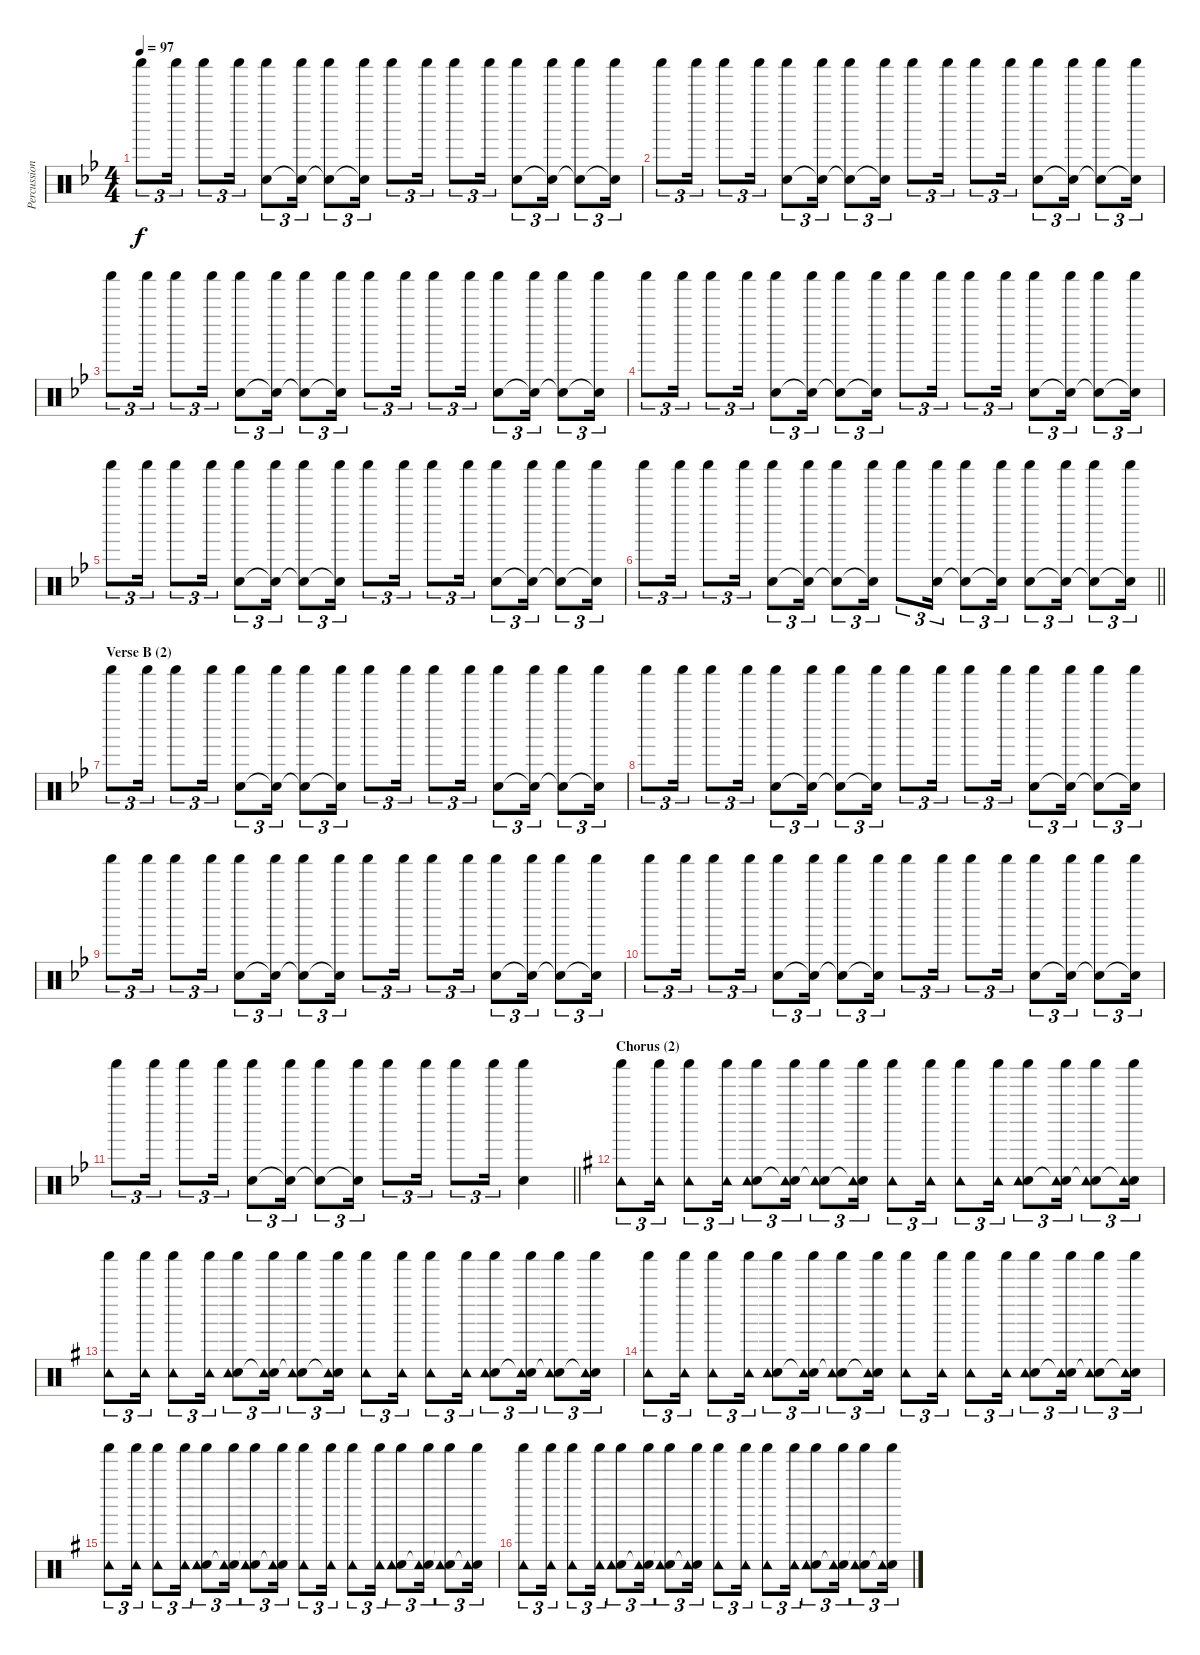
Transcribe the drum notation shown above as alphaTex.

\track ("Percussion" "Percussion") {instrument percussion}
\staff {score}
\articulation defaults
\ts (4 4)
\tempo 97
\clef neutral
\ks bb "Shaker (hit)".8{tu (3 2) dy f} "Shaker (hit)".16{tu (3 2)} "Shaker (hit)".8{tu (3 2)} "Shaker (hit)".16{tu (3 2)}
("Hand Clap (hit)" "Shaker (hit)").8{tu (3 2)} ("Snare (hit)"{t} "Shaker (hit)").16{tu (3 2)} ("Snare (hit)"{t} "Shaker (hit)").8{tu (3 2)} ("Snare (hit)"{t} "Shaker (hit)").16{tu (3 2)} "Shaker (hit)".8{tu (3 2)} "Shaker (hit)".16{tu (3 2)} "Shaker (hit)".8{tu (3 2)} "Shaker (hit)".16{tu (3 2)} ("Hand Clap (hit)" "Shaker (hit)").8{tu (3 2)} ("Snare (hit)"{t} "Shaker (hit)").16{tu (3 2)} ("Snare (hit)"{t} "Shaker (hit)").8{tu (3 2)} ("Snare (hit)"{t} "Shaker (hit)").16{tu (3 2)} |
"Shaker (hit)".8{tu (3 2)} "Shaker (hit)".16{tu (3 2)} "Shaker (hit)".8{tu (3 2)} "Shaker (hit)".16{tu (3 2)} ("Hand Clap (hit)" "Shaker (hit)").8{tu (3 2)} ("Snare (hit)"{t} "Shaker (hit)").16{tu (3 2)} ("Snare (hit)"{t} "Shaker (hit)").8{tu (3 2)} ("Snare (hit)"{t} "Shaker (hit)").16{tu (3 2)} "Shaker (hit)".8{tu (3 2)} "Shaker (hit)".16{tu (3 2)} "Shaker (hit)".8{tu (3 2)} "Shaker (hit)".16{tu (3 2)} ("Hand Clap (hit)" "Shaker (hit)").8{tu (3 2)} ("Snare (hit)"{t} "Shaker (hit)").16{tu (3 2)} ("Snare (hit)"{t} "Shaker (hit)").8{tu (3 2)} ("Snare (hit)"{t} "Shaker (hit)").16{tu (3 2)} |
"Shaker (hit)".8{tu (3 2)} "Shaker (hit)".16{tu (3 2)} "Shaker (hit)".8{tu (3 2)} "Shaker (hit)".16{tu (3 2)} ("Hand Clap (hit)" "Shaker (hit)").8{tu (3 2)} ("Snare (hit)"{t} "Shaker (hit)").16{tu (3 2)} ("Snare (hit)"{t} "Shaker (hit)").8{tu (3 2)} ("Snare (hit)"{t} "Shaker (hit)").16{tu (3 2)} "Shaker (hit)".8{tu (3 2)} "Shaker (hit)".16{tu (3 2)} "Shaker (hit)".8{tu (3 2)} "Shaker (hit)".16{tu (3 2)} ("Hand Clap (hit)" "Shaker (hit)").8{tu (3 2)} ("Snare (hit)"{t} "Shaker (hit)").16{tu (3 2)} ("Snare (hit)"{t} "Shaker (hit)").8{tu (3 2)} ("Snare (hit)"{t} "Shaker (hit)").16{tu (3 2)} |
"Shaker (hit)".8{tu (3 2)} "Shaker (hit)".16{tu (3 2)} "Shaker (hit)".8{tu (3 2)} "Shaker (hit)".16{tu (3 2)} ("Hand Clap (hit)" "Shaker (hit)").8{tu (3 2)} ("Snare (hit)"{t} "Shaker (hit)").16{tu (3 2)} ("Snare (hit)"{t} "Shaker (hit)").8{tu (3 2)} ("Snare (hit)"{t} "Shaker (hit)").16{tu (3 2)} "Shaker (hit)".8{tu (3 2)} "Shaker (hit)".16{tu (3 2)} "Shaker (hit)".8{tu (3 2)} "Shaker (hit)".16{tu (3 2)} ("Hand Clap (hit)" "Shaker (hit)").8{tu (3 2)} ("Snare (hit)"{t} "Shaker (hit)").16{tu (3 2)} ("Snare (hit)"{t} "Shaker (hit)").8{tu (3 2)} ("Snare (hit)"{t} "Shaker (hit)").16{tu (3 2)} |
"Shaker (hit)".8{tu (3 2)} "Shaker (hit)".16{tu (3 2)} "Shaker (hit)".8{tu (3 2)} "Shaker (hit)".16{tu (3 2)} ("Hand Clap (hit)" "Shaker (hit)").8{tu (3 2)} ("Snare (hit)"{t} "Shaker (hit)").16{tu (3 2)} ("Snare (hit)"{t} "Shaker (hit)").8{tu (3 2)} ("Snare (hit)"{t} "Shaker (hit)").16{tu (3 2)} "Shaker (hit)".8{tu (3 2)} "Shaker (hit)".16{tu (3 2)} "Shaker (hit)".8{tu (3 2)} "Shaker (hit)".16{tu (3 2)} ("Hand Clap (hit)" "Shaker (hit)").8{tu (3 2)} ("Snare (hit)"{t} "Shaker (hit)").16{tu (3 2)} ("Snare (hit)"{t} "Shaker (hit)").8{tu (3 2)} ("Snare (hit)"{t} "Shaker (hit)").16{tu (3 2)} |
\barLineRight lightlight "Shaker (hit)".8{tu (3 2)} "Shaker (hit)".16{tu (3 2)} "Shaker (hit)".8{tu (3 2)} "Shaker (hit)".16{tu (3 2)}
("Hand Clap (hit)" "Shaker (hit)").8{tu (3 2)} ("Snare (hit)"{t} "Shaker (hit)").16{tu (3 2)} ("Snare (hit)"{t} "Shaker (hit)").8{tu (3 2)} ("Snare (hit)"{t} "Shaker (hit)").16{tu (3 2)} "Shaker (hit)".8{tu (3 2)} ("Hand Clap (hit)" "Shaker (hit)").16{tu (3 2)} ("Snare (hit)"{t} "Shaker (hit)").8{tu (3 2)} ("Snare (hit)"{t} "Shaker (hit)").16{tu (3 2)} ("Hand Clap (hit)" "Shaker (hit)").8{tu (3 2)} ("Snare (hit)"{t} "Shaker (hit)").16{tu (3 2)} ("Snare (hit)"{t} "Shaker (hit)").8{tu (3 2)} ("Snare (hit)"{t} "Shaker (hit)").16{tu (3 2)} |
\section ("" "Verse B (2)")
"Shaker (hit)".8{tu (3 2)} "Shaker (hit)".16{tu (3 2)} "Shaker (hit)".8{tu (3 2)} "Shaker (hit)".16{tu (3 2)} ("Hand Clap (hit)" "Shaker (hit)").8{tu (3 2)} ("Snare (hit)"{t} "Shaker (hit)").16{tu (3 2)} ("Snare (hit)"{t} "Shaker (hit)").8{tu (3 2)} ("Snare (hit)"{t} "Shaker (hit)").16{tu (3 2)} "Shaker (hit)".8{tu (3 2)} "Shaker (hit)".16{tu (3 2)} "Shaker (hit)".8{tu (3 2)} "Shaker (hit)".16{tu (3 2)} ("Hand Clap (hit)" "Shaker (hit)").8{tu (3 2)} ("Snare (hit)"{t} "Shaker (hit)").16{tu (3 2)} ("Snare (hit)"{t} "Shaker (hit)").8{tu (3 2)} ("Snare (hit)"{t} "Shaker (hit)").16{tu (3 2)} |
"Shaker (hit)".8{tu (3 2)} "Shaker (hit)".16{tu (3 2)} "Shaker (hit)".8{tu (3 2)} "Shaker (hit)".16{tu (3 2)} ("Hand Clap (hit)" "Shaker (hit)").8{tu (3 2)} ("Snare (hit)"{t} "Shaker (hit)").16{tu (3 2)} ("Snare (hit)"{t} "Shaker (hit)").8{tu (3 2)} ("Snare (hit)"{t} "Shaker (hit)").16{tu (3 2)} "Shaker (hit)".8{tu (3 2)} "Shaker (hit)".16{tu (3 2)} "Shaker (hit)".8{tu (3 2)} "Shaker (hit)".16{tu (3 2)} ("Hand Clap (hit)" "Shaker (hit)").8{tu (3 2)} ("Snare (hit)"{t} "Shaker (hit)").16{tu (3 2)} ("Snare (hit)"{t} "Shaker (hit)").8{tu (3 2)} ("Snare (hit)"{t} "Shaker (hit)").16{tu (3 2)} |
"Shaker (hit)".8{tu (3 2)} "Shaker (hit)".16{tu (3 2)} "Shaker (hit)".8{tu (3 2)} "Shaker (hit)".16{tu (3 2)} ("Hand Clap (hit)" "Shaker (hit)").8{tu (3 2)} ("Snare (hit)"{t} "Shaker (hit)").16{tu (3 2)} ("Snare (hit)"{t} "Shaker (hit)").8{tu (3 2)} ("Snare (hit)"{t} "Shaker (hit)").16{tu (3 2)} "Shaker (hit)".8{tu (3 2)} "Shaker (hit)".16{tu (3 2)} "Shaker (hit)".8{tu (3 2)} "Shaker (hit)".16{tu (3 2)} ("Hand Clap (hit)" "Shaker (hit)").8{tu (3 2)} ("Snare (hit)"{t} "Shaker (hit)").16{tu (3 2)} ("Snare (hit)"{t} "Shaker (hit)").8{tu (3 2)} ("Snare (hit)"{t} "Shaker (hit)").16{tu (3 2)} |
"Shaker (hit)".8{tu (3 2)} "Shaker (hit)".16{tu (3 2)} "Shaker (hit)".8{tu (3 2)} "Shaker (hit)".16{tu (3 2)} ("Hand Clap (hit)" "Shaker (hit)").8{tu (3 2)} ("Snare (hit)"{t} "Shaker (hit)").16{tu (3 2)} ("Snare (hit)"{t} "Shaker (hit)").8{tu (3 2)} ("Snare (hit)"{t} "Shaker (hit)").16{tu (3 2)} "Shaker (hit)".8{tu (3 2)} "Shaker (hit)".16{tu (3 2)} "Shaker (hit)".8{tu (3 2)} "Shaker (hit)".16{tu (3 2)} ("Hand Clap (hit)" "Shaker (hit)").8{tu (3 2)} ("Snare (hit)"{t} "Shaker (hit)").16{tu (3 2)} ("Snare (hit)"{t} "Shaker (hit)").8{tu (3 2)} ("Snare (hit)"{t} "Shaker (hit)").16{tu (3 2)} |
\barLineRight lightlight "Shaker (hit)".8{tu (3 2)} "Shaker (hit)".16{tu (3 2)} "Shaker (hit)".8{tu (3 2)} "Shaker (hit)".16{tu (3 2)}
("Hand Clap (hit)" "Shaker (hit)").8{tu (3 2)} ("Snare (hit)"{t} "Shaker (hit)").16{tu (3 2)} ("Snare (hit)"{t} "Shaker (hit)").8{tu (3 2)} ("Snare (hit)"{t} "Shaker (hit)").16{tu (3 2)} "Shaker (hit)".8{tu (3 2)} "Shaker (hit)".16{tu (3 2)} "Shaker (hit)".8{tu (3 2)} "Shaker (hit)".16{tu (3 2)} ("Hand Clap (hit)" "Shaker (hit)").4 |
\section ("" "Chorus (2)")
\ks g
("Shaker (hit)" "Tambourine (hit)").8{tu (3 2)} ("Shaker (hit)" "Tambourine (hit)").16{tu (3 2)} ("Shaker (hit)" "Tambourine (hit)").8{tu (3 2)} ("Shaker (hit)" "Tambourine (hit)").16{tu (3 2)} ("Hand Clap (hit)" "Shaker (hit)" "Tambourine (hit)").8{tu (3 2)} ("Snare (hit)"{t} "Shaker (hit)" "Tambourine (hit)").16{tu (3 2)} ("Snare (hit)"{t} "Shaker (hit)" "Tambourine (hit)").8{tu (3 2)} ("Snare (hit)"{t} "Shaker (hit)" "Tambourine (hit)").16{tu (3 2)} ("Shaker (hit)" "Tambourine (hit)").8{tu (3 2)} ("Shaker (hit)" "Tambourine (hit)").16{tu (3 2)} ("Shaker (hit)" "Tambourine (hit)").8{tu (3 2)} ("Shaker (hit)" "Tambourine (hit)").16{tu (3 2)} ("Hand Clap (hit)" "Shaker (hit)" "Tambourine (hit)").8{tu (3 2)} ("Snare (hit)"{t} "Shaker (hit)" "Tambourine (hit)").16{tu (3 2)} ("Snare (hit)"{t} "Shaker (hit)" "Tambourine (hit)").8{tu (3 2)} ("Snare (hit)"{t} "Shaker (hit)" "Tambourine (hit)").16{tu (3 2)} |
("Shaker (hit)" "Tambourine (hit)").8{tu (3 2)} ("Shaker (hit)" "Tambourine (hit)").16{tu (3 2)} ("Shaker (hit)" "Tambourine (hit)").8{tu (3 2)} ("Shaker (hit)" "Tambourine (hit)").16{tu (3 2)} ("Hand Clap (hit)" "Shaker (hit)" "Tambourine (hit)").8{tu (3 2)} ("Snare (hit)"{t} "Shaker (hit)" "Tambourine (hit)").16{tu (3 2)} ("Snare (hit)"{t} "Shaker (hit)" "Tambourine (hit)").8{tu (3 2)} ("Snare (hit)"{t} "Shaker (hit)" "Tambourine (hit)").16{tu (3 2)} ("Shaker (hit)" "Tambourine (hit)").8{tu (3 2)} ("Shaker (hit)" "Tambourine (hit)").16{tu (3 2)} ("Shaker (hit)" "Tambourine (hit)").8{tu (3 2)} ("Shaker (hit)" "Tambourine (hit)").16{tu (3 2)} ("Hand Clap (hit)" "Shaker (hit)" "Tambourine (hit)").8{tu (3 2)} ("Snare (hit)"{t} "Shaker (hit)" "Tambourine (hit)").16{tu (3 2)} ("Snare (hit)"{t} "Shaker (hit)" "Tambourine (hit)").8{tu (3 2)} ("Snare (hit)"{t} "Shaker (hit)" "Tambourine (hit)").16{tu (3 2)} |
("Shaker (hit)" "Tambourine (hit)").8{tu (3 2)} ("Shaker (hit)" "Tambourine (hit)").16{tu (3 2)} ("Shaker (hit)" "Tambourine (hit)").8{tu (3 2)} ("Shaker (hit)" "Tambourine (hit)").16{tu (3 2)} ("Hand Clap (hit)" "Shaker (hit)" "Tambourine (hit)").8{tu (3 2)} ("Snare (hit)"{t} "Shaker (hit)" "Tambourine (hit)").16{tu (3 2)} ("Snare (hit)"{t} "Shaker (hit)" "Tambourine (hit)").8{tu (3 2)} ("Snare (hit)"{t} "Shaker (hit)" "Tambourine (hit)").16{tu (3 2)} ("Shaker (hit)" "Tambourine (hit)").8{tu (3 2)} ("Shaker (hit)" "Tambourine (hit)").16{tu (3 2)} ("Shaker (hit)" "Tambourine (hit)").8{tu (3 2)} ("Shaker (hit)" "Tambourine (hit)").16{tu (3 2)} ("Hand Clap (hit)" "Shaker (hit)" "Tambourine (hit)").8{tu (3 2)} ("Snare (hit)"{t} "Shaker (hit)" "Tambourine (hit)").16{tu (3 2)} ("Snare (hit)"{t} "Shaker (hit)" "Tambourine (hit)").8{tu (3 2)} ("Snare (hit)"{t} "Shaker (hit)" "Tambourine (hit)").16{tu (3 2)} |
("Shaker (hit)" "Tambourine (hit)").8{tu (3 2)} ("Shaker (hit)" "Tambourine (hit)").16{tu (3 2)} ("Shaker (hit)" "Tambourine (hit)").8{tu (3 2)} ("Shaker (hit)" "Tambourine (hit)").16{tu (3 2)} ("Hand Clap (hit)" "Shaker (hit)" "Tambourine (hit)").8{tu (3 2)} ("Snare (hit)"{t} "Shaker (hit)" "Tambourine (hit)").16{tu (3 2)} ("Snare (hit)"{t} "Shaker (hit)" "Tambourine (hit)").8{tu (3 2)} ("Snare (hit)"{t} "Shaker (hit)" "Tambourine (hit)").16{tu (3 2)} ("Shaker (hit)" "Tambourine (hit)").8{tu (3 2)} ("Shaker (hit)" "Tambourine (hit)").16{tu (3 2)} ("Shaker (hit)" "Tambourine (hit)").8{tu (3 2)} ("Shaker (hit)" "Tambourine (hit)").16{tu (3 2)} ("Hand Clap (hit)" "Shaker (hit)" "Tambourine (hit)").8{tu (3 2)} ("Snare (hit)"{t} "Shaker (hit)" "Tambourine (hit)").16{tu (3 2)} ("Snare (hit)"{t} "Shaker (hit)" "Tambourine (hit)").8{tu (3 2)} ("Snare (hit)"{t} "Shaker (hit)" "Tambourine (hit)").16{tu (3 2)} |
("Shaker (hit)" "Tambourine (hit)").8{tu (3 2)} ("Shaker (hit)" "Tambourine (hit)").16{tu (3 2)} ("Shaker (hit)" "Tambourine (hit)").8{tu (3 2)} ("Shaker (hit)" "Tambourine (hit)").16{tu (3 2)} ("Hand Clap (hit)" "Shaker (hit)" "Tambourine (hit)").8{tu (3 2)} ("Snare (hit)"{t} "Shaker (hit)" "Tambourine (hit)").16{tu (3 2)} ("Snare (hit)"{t} "Shaker (hit)" "Tambourine (hit)").8{tu (3 2)} ("Snare (hit)"{t} "Shaker (hit)" "Tambourine (hit)").16{tu (3 2)} ("Shaker (hit)" "Tambourine (hit)").8{tu (3 2)} ("Shaker (hit)" "Tambourine (hit)").16{tu (3 2)} ("Shaker (hit)" "Tambourine (hit)").8{tu (3 2)} ("Shaker (hit)" "Tambourine (hit)").16{tu (3 2)} ("Hand Clap (hit)" "Shaker (hit)" "Tambourine (hit)").8{tu (3 2)} ("Snare (hit)"{t} "Shaker (hit)" "Tambourine (hit)").16{tu (3 2)} ("Snare (hit)"{t} "Shaker (hit)" "Tambourine (hit)").8{tu (3 2)} ("Snare (hit)"{t} "Shaker (hit)" "Tambourine (hit)").16{tu (3 2)}
